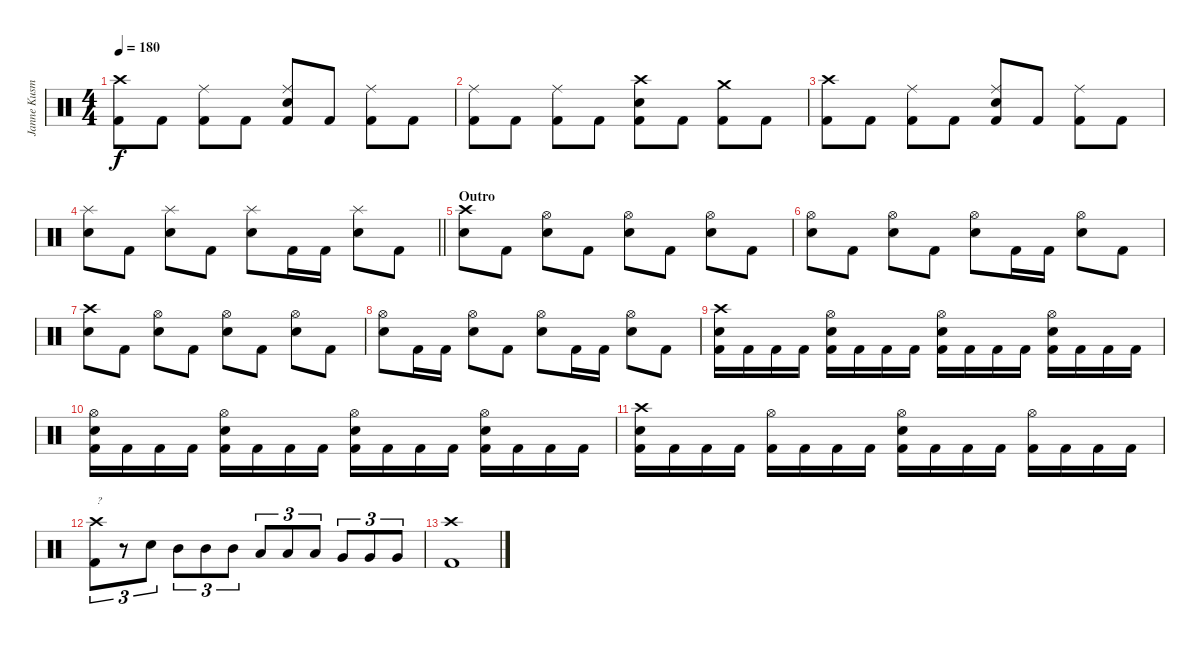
\track ("Janne Kusmin - Drums" "Janne Kusm") {instrument percussion}
\staff {score}
\articulation defaults
\ts (4 4)
\tempo 180
\clef neutral
\ks c
("Crash high (hit)" "Kick (hit) 2").8{dy f} "Kick (hit) 2".8 ("Ride (middle)" "Kick (hit) 2").8 "Kick (hit) 2".8 ("Ride (middle)" "Electric Snare (hit)" "Kick (hit) 2").8 "Kick (hit) 2".8 ("Ride (middle)" "Kick (hit) 2").8 "Kick (hit) 2".8 |
("Ride (middle)" "Kick (hit) 2").8 "Kick (hit) 2".8 ("Ride (middle)" "Kick (hit) 2").8 "Kick (hit) 2".8 ("Crash high (hit)" "Electric Snare (hit)" "Kick (hit) 2").8 "Kick (hit) 2".8 ("Crash medium (hit)" "Kick (hit) 2").8 "Kick (hit) 2".8 |
("Crash high (hit)" "Kick (hit) 2").8 "Kick (hit) 2".8 ("Ride (middle)" "Kick (hit) 2").8 "Kick (hit) 2".8 ("Ride (middle)" "Electric Snare (hit)" "Kick (hit) 2").8 "Kick (hit) 2".8 ("Ride (middle)" "Kick (hit) 2").8 "Kick (hit) 2".8 |
\barLineRight lightlight
("Splash (hit)" "Electric Snare (hit)").8 "Kick (hit) 2".8 ("Splash (hit)" "Electric Snare (hit)").8 "Kick (hit) 2".8 ("Splash (hit)" "Electric Snare (hit)").8 "Kick (hit) 2".16 "Kick (hit) 2".16 ("Splash (hit)" "Electric Snare (hit)").8 "Kick (hit) 2".8 |
\section ("" "Outro")
("Crash high (hit)" "Electric Snare (hit)").8 "Kick (hit) 2".8 ("Hi-Hat (open)" "Electric Snare (hit)").8 "Kick (hit) 2".8 ("Hi-Hat (open)" "Electric Snare (hit)").8 "Kick (hit) 2".8 ("Hi-Hat (open)" "Electric Snare (hit)").8 "Kick (hit) 2".8 |
("Hi-Hat (open)" "Electric Snare (hit)").8 "Kick (hit) 2".8 ("Hi-Hat (open)" "Electric Snare (hit)").8 "Kick (hit) 2".8 ("Hi-Hat (open)" "Electric Snare (hit)").8 "Kick (hit) 2".16 "Kick (hit) 2".16 ("Hi-Hat (open)" "Electric Snare (hit)").8 "Kick (hit) 2".8 |
("Crash high (hit)" "Electric Snare (hit)").8 "Kick (hit) 2".8 ("Hi-Hat (open)" "Electric Snare (hit)").8 "Kick (hit) 2".8 ("Hi-Hat (open)" "Electric Snare (hit)").8 "Kick (hit) 2".8 ("Hi-Hat (open)" "Electric Snare (hit)").8 "Kick (hit) 2".8 |
("Hi-Hat (open)" "Electric Snare (hit)").8 "Kick (hit) 2".16 "Kick (hit) 2".16 ("Hi-Hat (open)" "Electric Snare (hit)").8 "Kick (hit) 2".8 ("Hi-Hat (open)" "Electric Snare (hit)").8 "Kick (hit) 2".16 "Kick (hit) 2".16 ("Hi-Hat (open)" "Electric Snare (hit)").8 "Kick (hit) 2".8 |
("Crash high (hit)" "Electric Snare (hit)" "Kick (hit) 2").16 "Kick (hit) 2".16 "Kick (hit) 2".16 "Kick (hit) 2".16 ("Hi-Hat (open)" "Electric Snare (hit)" "Kick (hit) 2").16 "Kick (hit) 2".16 "Kick (hit) 2".16 "Kick (hit) 2".16 ("Hi-Hat (open)" "Electric Snare (hit)" "Kick (hit) 2").16 "Kick (hit) 2".16 "Kick (hit) 2".16 "Kick (hit) 2".16 ("Hi-Hat (open)" "Electric Snare (hit)" "Kick (hit) 2").16 "Kick (hit) 2".16 "Kick (hit) 2".16 "Kick (hit) 2".16 |
("Hi-Hat (open)" "Electric Snare (hit)" "Kick (hit) 2").16 "Kick (hit) 2".16 "Kick (hit) 2".16 "Kick (hit) 2".16 ("Hi-Hat (open)" "Electric Snare (hit)" "Kick (hit) 2").16 "Kick (hit) 2".16 "Kick (hit) 2".16 "Kick (hit) 2".16 ("Hi-Hat (open)" "Electric Snare (hit)" "Kick (hit) 2").16 "Kick (hit) 2".16 "Kick (hit) 2".16 "Kick (hit) 2".16 ("Hi-Hat (open)" "Electric Snare (hit)" "Kick (hit) 2").16 "Kick (hit) 2".16 "Kick (hit) 2".16 "Kick (hit) 2".16 |
("Crash high (hit)" "Electric Snare (hit)" "Kick (hit) 2").16 "Kick (hit) 2".16 "Kick (hit) 2".16 "Kick (hit) 2".16 ("Hi-Hat (open)" "Kick (hit) 2").16 "Kick (hit) 2".16 "Kick (hit) 2".16 "Kick (hit) 2".16 ("Hi-Hat (open)" "Electric Snare (hit)" "Kick (hit) 2").16 "Kick (hit) 2".16 "Kick (hit) 2".16 "Kick (hit) 2".16 ("Hi-Hat (open)" "Kick (hit) 2").16 "Kick (hit) 2".16 "Kick (hit) 2".16 "Kick (hit) 2".16 |
("Crash high (hit)" "Kick (hit) 2").8{tu (3 2) txt "?"} r.8{tu (3 2)} "Electric Snare (hit)".8{tu (3 2)} "Mid Tom (hit)".8{tu (3 2)} "Mid Tom (hit)".8{tu (3 2)} "Mid Tom (hit)".8{tu (3 2)} "Low Tom (hit)".8{tu (3 2)} "Low Tom (hit)".8{tu (3 2)} "Low Tom (hit)".8{tu (3 2)} "Very Low Tom (hit)".8{tu (3 2)} "Very Low Tom (hit)".8{tu (3 2)} "Very Low Tom (hit)".8{tu (3 2)} |
("Crash high (hit)" "Kick (hit) 2").1
